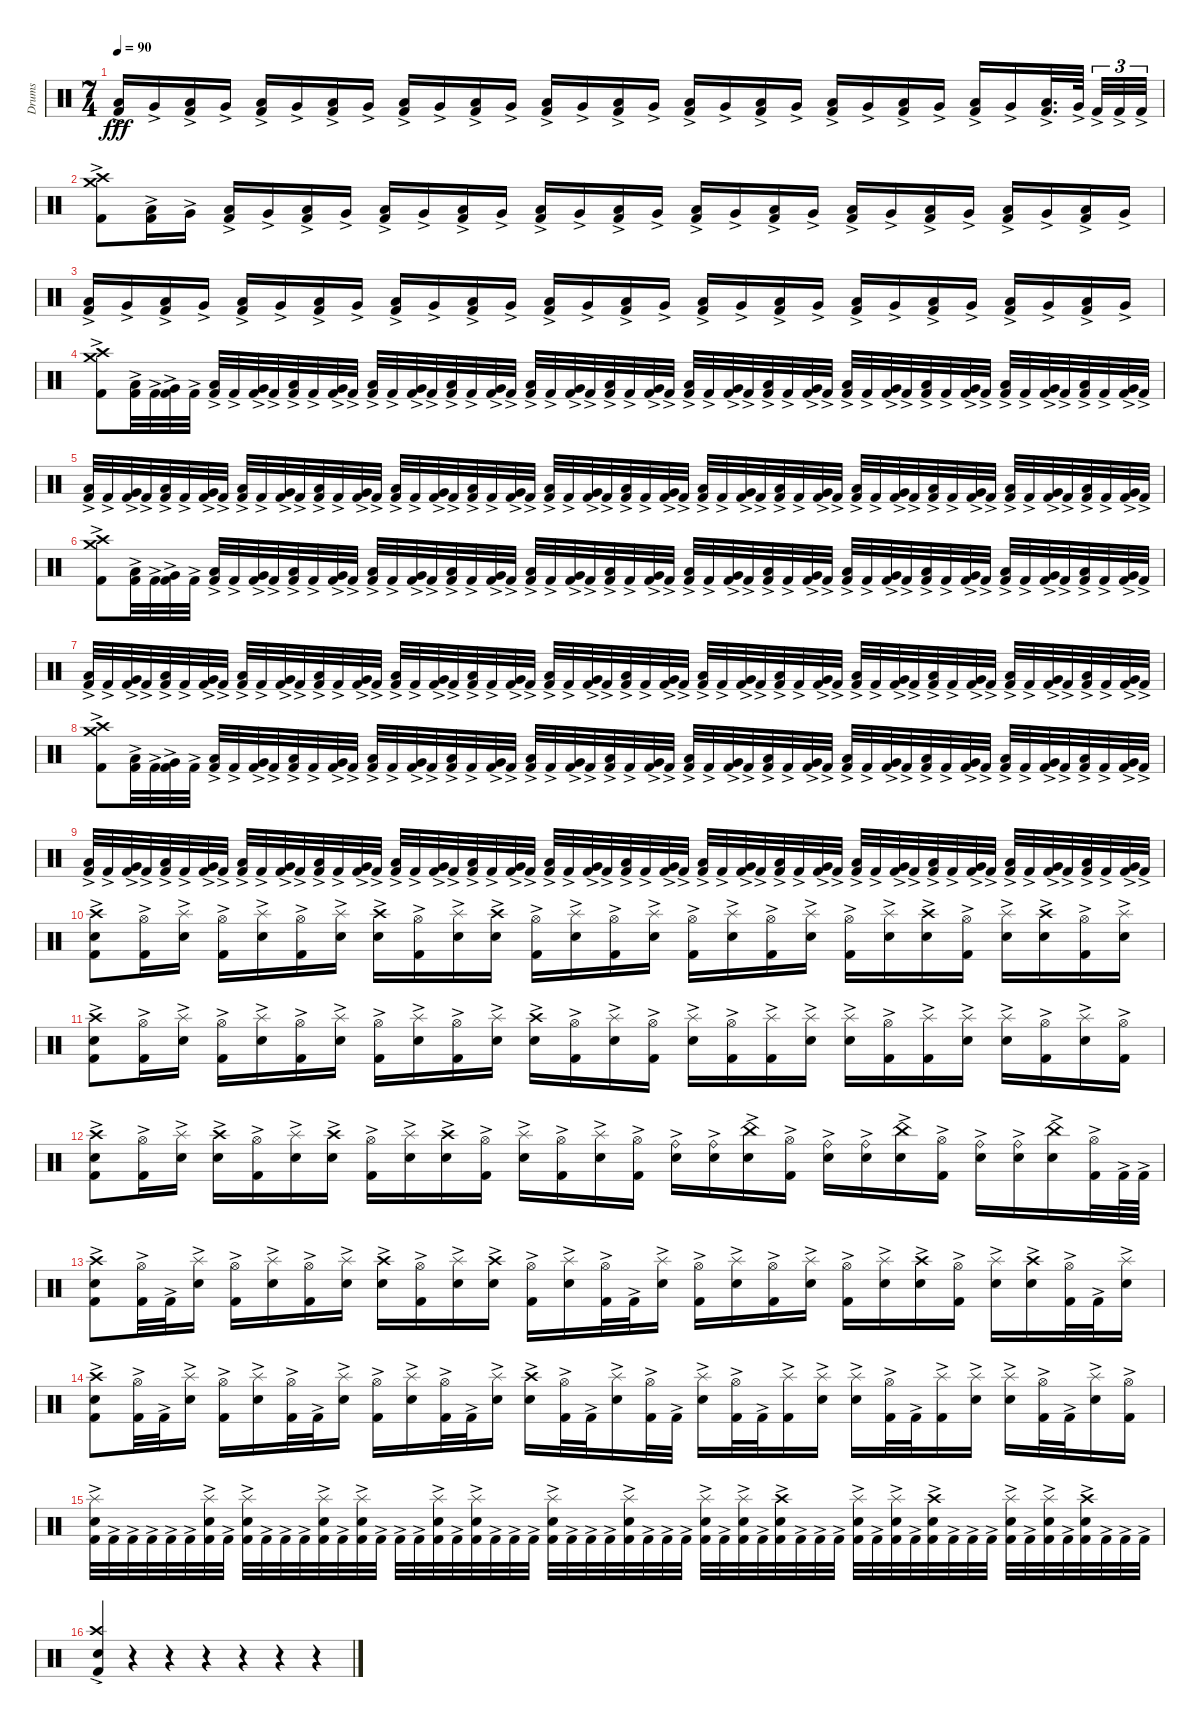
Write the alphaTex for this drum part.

\track ("Drums" "Drums") {instrument percussion}
\staff {score}
\articulation defaults
\ts (7 4)
\tempo 90
\clef neutral
\ks c
("Low Tom (hit)"{ac} "Kick (hit) 2"{ac}).16{dy fff} "Very Low Tom (hit)"{ac}.16 ("Low Tom (hit)"{ac} "Kick (hit) 2"{ac}).16 "Very Low Tom (hit)"{ac}.16 ("Low Tom (hit)"{ac} "Kick (hit) 2"{ac}).16 "Very Low Tom (hit)"{ac}.16 ("Low Tom (hit)"{ac} "Kick (hit) 2"{ac}).16 "Very Low Tom (hit)"{ac}.16 ("Low Tom (hit)"{ac} "Kick (hit) 2"{ac}).16 "Very Low Tom (hit)"{ac}.16 ("Low Tom (hit)"{ac} "Kick (hit) 2"{ac}).16 "Very Low Tom (hit)"{ac}.16 ("Low Tom (hit)"{ac} "Kick (hit) 2"{ac}).16 "Very Low Tom (hit)"{ac}.16 ("Low Tom (hit)"{ac} "Kick (hit) 2"{ac}).16 "Very Low Tom (hit)"{ac}.16 ("Low Tom (hit)"{ac} "Kick (hit) 2"{ac}).16 "Very Low Tom (hit)"{ac}.16 ("Low Tom (hit)"{ac} "Kick (hit) 2"{ac}).16 "Very Low Tom (hit)"{ac}.16 ("Low Tom (hit)"{ac} "Kick (hit) 2"{ac}).16 "Very Low Tom (hit)"{ac}.16 ("Low Tom (hit)"{ac} "Kick (hit) 2"{ac}).16 "Very Low Tom (hit)"{ac}.16 ("Low Tom (hit)"{ac} "Kick (hit) 2"{ac}).16 "Very Low Tom (hit)"{ac}.16 ("Low Tom (hit)"{ac} "Kick (hit) 2"{ac}).32{d} "Very Low Tom (hit)"{ac}.64 "Kick (hit) 2"{ac}.32{tu (3 2)} "Kick (hit) 2"{ac}.32{tu (3 2)} "Kick (hit) 2"{ac}.32{tu (3 2)} |
("Crash high (hit)"{ac} "Crash medium (hit)"{ac} "Kick (hit) 2"{ac}).8 ("Low Tom (hit)"{ac} "Kick (hit) 2"{ac}).16 "Very Low Tom (hit)"{ac}.16 ("Low Tom (hit)"{ac} "Kick (hit) 2"{ac}).16 "Very Low Tom (hit)"{ac}.16 ("Low Tom (hit)"{ac} "Kick (hit) 2"{ac}).16 "Very Low Tom (hit)"{ac}.16 ("Low Tom (hit)"{ac} "Kick (hit) 2"{ac}).16 "Very Low Tom (hit)"{ac}.16 ("Low Tom (hit)"{ac} "Kick (hit) 2"{ac}).16 "Very Low Tom (hit)"{ac}.16 ("Low Tom (hit)"{ac} "Kick (hit) 2"{ac}).16 "Very Low Tom (hit)"{ac}.16 ("Low Tom (hit)"{ac} "Kick (hit) 2"{ac}).16 "Very Low Tom (hit)"{ac}.16 ("Low Tom (hit)"{ac} "Kick (hit) 2"{ac}).16 "Very Low Tom (hit)"{ac}.16 ("Low Tom (hit)"{ac} "Kick (hit) 2"{ac}).16 "Very Low Tom (hit)"{ac}.16 ("Low Tom (hit)"{ac} "Kick (hit) 2"{ac}).16 "Very Low Tom (hit)"{ac}.16 ("Low Tom (hit)"{ac} "Kick (hit) 2"{ac}).16 "Very Low Tom (hit)"{ac}.16 ("Low Tom (hit)"{ac} "Kick (hit) 2"{ac}).16 "Very Low Tom (hit)"{ac}.16 ("Low Tom (hit)"{ac} "Kick (hit) 2"{ac}).16 "Very Low Tom (hit)"{ac}.16 |
("Low Tom (hit)"{ac} "Kick (hit) 2"{ac}).16 "Very Low Tom (hit)"{ac}.16 ("Low Tom (hit)"{ac} "Kick (hit) 2"{ac}).16 "Very Low Tom (hit)"{ac}.16 ("Low Tom (hit)"{ac} "Kick (hit) 2"{ac}).16 "Very Low Tom (hit)"{ac}.16 ("Low Tom (hit)"{ac} "Kick (hit) 2"{ac}).16 "Very Low Tom (hit)"{ac}.16 ("Low Tom (hit)"{ac} "Kick (hit) 2"{ac}).16 "Very Low Tom (hit)"{ac}.16 ("Low Tom (hit)"{ac} "Kick (hit) 2"{ac}).16 "Very Low Tom (hit)"{ac}.16 ("Low Tom (hit)"{ac} "Kick (hit) 2"{ac}).16 "Very Low Tom (hit)"{ac}.16 ("Low Tom (hit)"{ac} "Kick (hit) 2"{ac}).16 "Very Low Tom (hit)"{ac}.16 ("Low Tom (hit)"{ac} "Kick (hit) 2"{ac}).16 "Very Low Tom (hit)"{ac}.16 ("Low Tom (hit)"{ac} "Kick (hit) 2"{ac}).16 "Very Low Tom (hit)"{ac}.16 ("Low Tom (hit)"{ac} "Kick (hit) 2"{ac}).16 "Very Low Tom (hit)"{ac}.16 ("Low Tom (hit)"{ac} "Kick (hit) 2"{ac}).16 "Very Low Tom (hit)"{ac}.16 ("Low Tom (hit)"{ac} "Kick (hit) 2"{ac}).16 "Very Low Tom (hit)"{ac}.16 ("Low Tom (hit)"{ac} "Kick (hit) 2"{ac}).16 "Very Low Tom (hit)"{ac}.16 |
("Crash high (hit)"{ac} "Crash medium (hit)"{ac} "Kick (hit) 2"{ac}).8 ("Low Tom (hit)"{ac} "Kick (hit) 2"{ac}).32 "Kick (hit) 2"{ac}.32 ("Very Low Tom (hit)"{ac} "Kick (hit) 2"{ac}).32 "Kick (hit) 2"{ac}.32 ("Low Tom (hit)"{ac} "Kick (hit) 2"{ac}).32 "Kick (hit) 2"{ac}.32 ("Very Low Tom (hit)"{ac} "Kick (hit) 2"{ac}).32 "Kick (hit) 2"{ac}.32 ("Low Tom (hit)"{ac} "Kick (hit) 2"{ac}).32 "Kick (hit) 2"{ac}.32 ("Very Low Tom (hit)"{ac} "Kick (hit) 2"{ac}).32 "Kick (hit) 2"{ac}.32 ("Low Tom (hit)"{ac} "Kick (hit) 2"{ac}).32 "Kick (hit) 2"{ac}.32 ("Very Low Tom (hit)"{ac} "Kick (hit) 2"{ac}).32 "Kick (hit) 2"{ac}.32 ("Low Tom (hit)"{ac} "Kick (hit) 2"{ac}).32 "Kick (hit) 2"{ac}.32 ("Very Low Tom (hit)"{ac} "Kick (hit) 2"{ac}).32 "Kick (hit) 2"{ac}.32 ("Low Tom (hit)"{ac} "Kick (hit) 2"{ac}).32 "Kick (hit) 2"{ac}.32 ("Very Low Tom (hit)"{ac} "Kick (hit) 2"{ac}).32 "Kick (hit) 2"{ac}.32 ("Low Tom (hit)"{ac} "Kick (hit) 2"{ac}).32 "Kick (hit) 2"{ac}.32 ("Very Low Tom (hit)"{ac} "Kick (hit) 2"{ac}).32 "Kick (hit) 2"{ac}.32 ("Low Tom (hit)"{ac} "Kick (hit) 2"{ac}).32 "Kick (hit) 2"{ac}.32 ("Very Low Tom (hit)"{ac} "Kick (hit) 2"{ac}).32 "Kick (hit) 2"{ac}.32 ("Low Tom (hit)"{ac} "Kick (hit) 2"{ac}).32 "Kick (hit) 2"{ac}.32 ("Very Low Tom (hit)"{ac} "Kick (hit) 2"{ac}).32 "Kick (hit) 2"{ac}.32 ("Low Tom (hit)"{ac} "Kick (hit) 2"{ac}).32 "Kick (hit) 2"{ac}.32 ("Very Low Tom (hit)"{ac} "Kick (hit) 2"{ac}).32 "Kick (hit) 2"{ac}.32 ("Low Tom (hit)"{ac} "Kick (hit) 2"{ac}).32 "Kick (hit) 2"{ac}.32 ("Very Low Tom (hit)"{ac} "Kick (hit) 2"{ac}).32 "Kick (hit) 2"{ac}.32 ("Low Tom (hit)"{ac} "Kick (hit) 2"{ac}).32 "Kick (hit) 2"{ac}.32 ("Very Low Tom (hit)"{ac} "Kick (hit) 2"{ac}).32 "Kick (hit) 2"{ac}.32 ("Low Tom (hit)"{ac} "Kick (hit) 2"{ac}).32 "Kick (hit) 2"{ac}.32 ("Very Low Tom (hit)"{ac} "Kick (hit) 2"{ac}).32 "Kick (hit) 2"{ac}.32 |
("Low Tom (hit)"{ac} "Kick (hit) 2"{ac}).32 "Kick (hit) 2"{ac}.32 ("Very Low Tom (hit)"{ac} "Kick (hit) 2"{ac}).32 "Kick (hit) 2"{ac}.32 ("Low Tom (hit)"{ac} "Kick (hit) 2"{ac}).32 "Kick (hit) 2"{ac}.32 ("Very Low Tom (hit)"{ac} "Kick (hit) 2"{ac}).32 "Kick (hit) 2"{ac}.32 ("Low Tom (hit)"{ac} "Kick (hit) 2"{ac}).32 "Kick (hit) 2"{ac}.32 ("Very Low Tom (hit)"{ac} "Kick (hit) 2"{ac}).32 "Kick (hit) 2"{ac}.32 ("Low Tom (hit)"{ac} "Kick (hit) 2"{ac}).32 "Kick (hit) 2"{ac}.32 ("Very Low Tom (hit)"{ac} "Kick (hit) 2"{ac}).32 "Kick (hit) 2"{ac}.32 ("Low Tom (hit)"{ac} "Kick (hit) 2"{ac}).32 "Kick (hit) 2"{ac}.32 ("Very Low Tom (hit)"{ac} "Kick (hit) 2"{ac}).32 "Kick (hit) 2"{ac}.32 ("Low Tom (hit)"{ac} "Kick (hit) 2"{ac}).32 "Kick (hit) 2"{ac}.32 ("Very Low Tom (hit)"{ac} "Kick (hit) 2"{ac}).32 "Kick (hit) 2"{ac}.32 ("Low Tom (hit)"{ac} "Kick (hit) 2"{ac}).32 "Kick (hit) 2"{ac}.32 ("Very Low Tom (hit)"{ac} "Kick (hit) 2"{ac}).32 "Kick (hit) 2"{ac}.32 ("Low Tom (hit)"{ac} "Kick (hit) 2"{ac}).32 "Kick (hit) 2"{ac}.32 ("Very Low Tom (hit)"{ac} "Kick (hit) 2"{ac}).32 "Kick (hit) 2"{ac}.32 ("Low Tom (hit)"{ac} "Kick (hit) 2"{ac}).32 "Kick (hit) 2"{ac}.32 ("Very Low Tom (hit)"{ac} "Kick (hit) 2"{ac}).32 "Kick (hit) 2"{ac}.32 ("Low Tom (hit)"{ac} "Kick (hit) 2"{ac}).32 "Kick (hit) 2"{ac}.32 ("Very Low Tom (hit)"{ac} "Kick (hit) 2"{ac}).32 "Kick (hit) 2"{ac}.32 ("Low Tom (hit)"{ac} "Kick (hit) 2"{ac}).32 "Kick (hit) 2"{ac}.32 ("Very Low Tom (hit)"{ac} "Kick (hit) 2"{ac}).32 "Kick (hit) 2"{ac}.32 ("Low Tom (hit)"{ac} "Kick (hit) 2"{ac}).32 "Kick (hit) 2"{ac}.32 ("Very Low Tom (hit)"{ac} "Kick (hit) 2"{ac}).32 "Kick (hit) 2"{ac}.32 ("Low Tom (hit)"{ac} "Kick (hit) 2"{ac}).32 "Kick (hit) 2"{ac}.32 ("Very Low Tom (hit)"{ac} "Kick (hit) 2"{ac}).32 "Kick (hit) 2"{ac}.32 ("Low Tom (hit)"{ac} "Kick (hit) 2"{ac}).32 "Kick (hit) 2"{ac}.32 ("Very Low Tom (hit)"{ac} "Kick (hit) 2"{ac}).32 "Kick (hit) 2"{ac}.32 |
("Crash high (hit)"{ac} "Crash medium (hit)"{ac} "Kick (hit) 2"{ac}).8 ("Low Tom (hit)"{ac} "Kick (hit) 2"{ac}).32 "Kick (hit) 2"{ac}.32 ("Very Low Tom (hit)"{ac} "Kick (hit) 2"{ac}).32 "Kick (hit) 2"{ac}.32 ("Low Tom (hit)"{ac} "Kick (hit) 2"{ac}).32 "Kick (hit) 2"{ac}.32 ("Very Low Tom (hit)"{ac} "Kick (hit) 2"{ac}).32 "Kick (hit) 2"{ac}.32 ("Low Tom (hit)"{ac} "Kick (hit) 2"{ac}).32 "Kick (hit) 2"{ac}.32 ("Very Low Tom (hit)"{ac} "Kick (hit) 2"{ac}).32 "Kick (hit) 2"{ac}.32 ("Low Tom (hit)"{ac} "Kick (hit) 2"{ac}).32 "Kick (hit) 2"{ac}.32 ("Very Low Tom (hit)"{ac} "Kick (hit) 2"{ac}).32 "Kick (hit) 2"{ac}.32 ("Low Tom (hit)"{ac} "Kick (hit) 2"{ac}).32 "Kick (hit) 2"{ac}.32 ("Very Low Tom (hit)"{ac} "Kick (hit) 2"{ac}).32 "Kick (hit) 2"{ac}.32 ("Low Tom (hit)"{ac} "Kick (hit) 2"{ac}).32 "Kick (hit) 2"{ac}.32 ("Very Low Tom (hit)"{ac} "Kick (hit) 2"{ac}).32 "Kick (hit) 2"{ac}.32 ("Low Tom (hit)"{ac} "Kick (hit) 2"{ac}).32 "Kick (hit) 2"{ac}.32 ("Very Low Tom (hit)"{ac} "Kick (hit) 2"{ac}).32 "Kick (hit) 2"{ac}.32 ("Low Tom (hit)"{ac} "Kick (hit) 2"{ac}).32 "Kick (hit) 2"{ac}.32 ("Very Low Tom (hit)"{ac} "Kick (hit) 2"{ac}).32 "Kick (hit) 2"{ac}.32 ("Low Tom (hit)"{ac} "Kick (hit) 2"{ac}).32 "Kick (hit) 2"{ac}.32 ("Very Low Tom (hit)"{ac} "Kick (hit) 2"{ac}).32 "Kick (hit) 2"{ac}.32 ("Low Tom (hit)"{ac} "Kick (hit) 2"{ac}).32 "Kick (hit) 2"{ac}.32 ("Very Low Tom (hit)"{ac} "Kick (hit) 2"{ac}).32 "Kick (hit) 2"{ac}.32 ("Low Tom (hit)"{ac} "Kick (hit) 2"{ac}).32 "Kick (hit) 2"{ac}.32 ("Very Low Tom (hit)"{ac} "Kick (hit) 2"{ac}).32 "Kick (hit) 2"{ac}.32 ("Low Tom (hit)"{ac} "Kick (hit) 2"{ac}).32 "Kick (hit) 2"{ac}.32 ("Very Low Tom (hit)"{ac} "Kick (hit) 2"{ac}).32 "Kick (hit) 2"{ac}.32 ("Low Tom (hit)"{ac} "Kick (hit) 2"{ac}).32 "Kick (hit) 2"{ac}.32 ("Very Low Tom (hit)"{ac} "Kick (hit) 2"{ac}).32 "Kick (hit) 2"{ac}.32 |
("Low Tom (hit)"{ac} "Kick (hit) 2"{ac}).32 "Kick (hit) 2"{ac}.32 ("Very Low Tom (hit)"{ac} "Kick (hit) 2"{ac}).32 "Kick (hit) 2"{ac}.32 ("Low Tom (hit)"{ac} "Kick (hit) 2"{ac}).32 "Kick (hit) 2"{ac}.32 ("Very Low Tom (hit)"{ac} "Kick (hit) 2"{ac}).32 "Kick (hit) 2"{ac}.32 ("Low Tom (hit)"{ac} "Kick (hit) 2"{ac}).32 "Kick (hit) 2"{ac}.32 ("Very Low Tom (hit)"{ac} "Kick (hit) 2"{ac}).32 "Kick (hit) 2"{ac}.32 ("Low Tom (hit)"{ac} "Kick (hit) 2"{ac}).32 "Kick (hit) 2"{ac}.32 ("Very Low Tom (hit)"{ac} "Kick (hit) 2"{ac}).32 "Kick (hit) 2"{ac}.32 ("Low Tom (hit)"{ac} "Kick (hit) 2"{ac}).32 "Kick (hit) 2"{ac}.32 ("Very Low Tom (hit)"{ac} "Kick (hit) 2"{ac}).32 "Kick (hit) 2"{ac}.32 ("Low Tom (hit)"{ac} "Kick (hit) 2"{ac}).32 "Kick (hit) 2"{ac}.32 ("Very Low Tom (hit)"{ac} "Kick (hit) 2"{ac}).32 "Kick (hit) 2"{ac}.32 ("Low Tom (hit)"{ac} "Kick (hit) 2"{ac}).32 "Kick (hit) 2"{ac}.32 ("Very Low Tom (hit)"{ac} "Kick (hit) 2"{ac}).32 "Kick (hit) 2"{ac}.32 ("Low Tom (hit)"{ac} "Kick (hit) 2"{ac}).32 "Kick (hit) 2"{ac}.32 ("Very Low Tom (hit)"{ac} "Kick (hit) 2"{ac}).32 "Kick (hit) 2"{ac}.32 ("Low Tom (hit)"{ac} "Kick (hit) 2"{ac}).32 "Kick (hit) 2"{ac}.32 ("Very Low Tom (hit)"{ac} "Kick (hit) 2"{ac}).32 "Kick (hit) 2"{ac}.32 ("Low Tom (hit)"{ac} "Kick (hit) 2"{ac}).32 "Kick (hit) 2"{ac}.32 ("Very Low Tom (hit)"{ac} "Kick (hit) 2"{ac}).32 "Kick (hit) 2"{ac}.32 ("Low Tom (hit)"{ac} "Kick (hit) 2"{ac}).32 "Kick (hit) 2"{ac}.32 ("Very Low Tom (hit)"{ac} "Kick (hit) 2"{ac}).32 "Kick (hit) 2"{ac}.32 ("Low Tom (hit)"{ac} "Kick (hit) 2"{ac}).32 "Kick (hit) 2"{ac}.32 ("Very Low Tom (hit)"{ac} "Kick (hit) 2"{ac}).32 "Kick (hit) 2"{ac}.32 ("Low Tom (hit)"{ac} "Kick (hit) 2"{ac}).32 "Kick (hit) 2"{ac}.32 ("Very Low Tom (hit)"{ac} "Kick (hit) 2"{ac}).32 "Kick (hit) 2"{ac}.32 ("Low Tom (hit)"{ac} "Kick (hit) 2"{ac}).32 "Kick (hit) 2"{ac}.32 ("Very Low Tom (hit)"{ac} "Kick (hit) 2"{ac}).32 "Kick (hit) 2"{ac}.32 |
("Crash high (hit)"{ac} "Crash medium (hit)"{ac} "Kick (hit) 2"{ac}).8 ("Low Tom (hit)"{ac} "Kick (hit) 2"{ac}).32 "Kick (hit) 2"{ac}.32 ("Very Low Tom (hit)"{ac} "Kick (hit) 2"{ac}).32 "Kick (hit) 2"{ac}.32 ("Low Tom (hit)"{ac} "Kick (hit) 2"{ac}).32 "Kick (hit) 2"{ac}.32 ("Very Low Tom (hit)"{ac} "Kick (hit) 2"{ac}).32 "Kick (hit) 2"{ac}.32 ("Low Tom (hit)"{ac} "Kick (hit) 2"{ac}).32 "Kick (hit) 2"{ac}.32 ("Very Low Tom (hit)"{ac} "Kick (hit) 2"{ac}).32 "Kick (hit) 2"{ac}.32 ("Low Tom (hit)"{ac} "Kick (hit) 2"{ac}).32 "Kick (hit) 2"{ac}.32 ("Very Low Tom (hit)"{ac} "Kick (hit) 2"{ac}).32 "Kick (hit) 2"{ac}.32 ("Low Tom (hit)"{ac} "Kick (hit) 2"{ac}).32 "Kick (hit) 2"{ac}.32 ("Very Low Tom (hit)"{ac} "Kick (hit) 2"{ac}).32 "Kick (hit) 2"{ac}.32 ("Low Tom (hit)"{ac} "Kick (hit) 2"{ac}).32 "Kick (hit) 2"{ac}.32 ("Very Low Tom (hit)"{ac} "Kick (hit) 2"{ac}).32 "Kick (hit) 2"{ac}.32 ("Low Tom (hit)"{ac} "Kick (hit) 2"{ac}).32 "Kick (hit) 2"{ac}.32 ("Very Low Tom (hit)"{ac} "Kick (hit) 2"{ac}).32 "Kick (hit) 2"{ac}.32 ("Low Tom (hit)"{ac} "Kick (hit) 2"{ac}).32 "Kick (hit) 2"{ac}.32 ("Very Low Tom (hit)"{ac} "Kick (hit) 2"{ac}).32 "Kick (hit) 2"{ac}.32 ("Low Tom (hit)"{ac} "Kick (hit) 2"{ac}).32 "Kick (hit) 2"{ac}.32 ("Very Low Tom (hit)"{ac} "Kick (hit) 2"{ac}).32 "Kick (hit) 2"{ac}.32 ("Low Tom (hit)"{ac} "Kick (hit) 2"{ac}).32 "Kick (hit) 2"{ac}.32 ("Very Low Tom (hit)"{ac} "Kick (hit) 2"{ac}).32 "Kick (hit) 2"{ac}.32 ("Low Tom (hit)"{ac} "Kick (hit) 2"{ac}).32 "Kick (hit) 2"{ac}.32 ("Very Low Tom (hit)"{ac} "Kick (hit) 2"{ac}).32 "Kick (hit) 2"{ac}.32 ("Low Tom (hit)"{ac} "Kick (hit) 2"{ac}).32 "Kick (hit) 2"{ac}.32 ("Very Low Tom (hit)"{ac} "Kick (hit) 2"{ac}).32 "Kick (hit) 2"{ac}.32 ("Low Tom (hit)"{ac} "Kick (hit) 2"{ac}).32 "Kick (hit) 2"{ac}.32 ("Very Low Tom (hit)"{ac} "Kick (hit) 2"{ac}).32 "Kick (hit) 2"{ac}.32 |
("Low Tom (hit)"{ac} "Kick (hit) 2"{ac}).32 "Kick (hit) 2"{ac}.32 ("Very Low Tom (hit)"{ac} "Kick (hit) 2"{ac}).32 "Kick (hit) 2"{ac}.32 ("Low Tom (hit)"{ac} "Kick (hit) 2"{ac}).32 "Kick (hit) 2"{ac}.32 ("Very Low Tom (hit)"{ac} "Kick (hit) 2"{ac}).32 "Kick (hit) 2"{ac}.32 ("Low Tom (hit)"{ac} "Kick (hit) 2"{ac}).32 "Kick (hit) 2"{ac}.32 ("Very Low Tom (hit)"{ac} "Kick (hit) 2"{ac}).32 "Kick (hit) 2"{ac}.32 ("Low Tom (hit)"{ac} "Kick (hit) 2"{ac}).32 "Kick (hit) 2"{ac}.32 ("Very Low Tom (hit)"{ac} "Kick (hit) 2"{ac}).32 "Kick (hit) 2"{ac}.32 ("Low Tom (hit)"{ac} "Kick (hit) 2"{ac}).32 "Kick (hit) 2"{ac}.32 ("Very Low Tom (hit)"{ac} "Kick (hit) 2"{ac}).32 "Kick (hit) 2"{ac}.32 ("Low Tom (hit)"{ac} "Kick (hit) 2"{ac}).32 "Kick (hit) 2"{ac}.32 ("Very Low Tom (hit)"{ac} "Kick (hit) 2"{ac}).32 "Kick (hit) 2"{ac}.32 ("Low Tom (hit)"{ac} "Kick (hit) 2"{ac}).32 "Kick (hit) 2"{ac}.32 ("Very Low Tom (hit)"{ac} "Kick (hit) 2"{ac}).32 "Kick (hit) 2"{ac}.32 ("Low Tom (hit)"{ac} "Kick (hit) 2"{ac}).32 "Kick (hit) 2"{ac}.32 ("Very Low Tom (hit)"{ac} "Kick (hit) 2"{ac}).32 "Kick (hit) 2"{ac}.32 ("Low Tom (hit)"{ac} "Kick (hit) 2"{ac}).32 "Kick (hit) 2"{ac}.32 ("Very Low Tom (hit)"{ac} "Kick (hit) 2"{ac}).32 "Kick (hit) 2"{ac}.32 ("Low Tom (hit)"{ac} "Kick (hit) 2"{ac}).32 "Kick (hit) 2"{ac}.32 ("Very Low Tom (hit)"{ac} "Kick (hit) 2"{ac}).32 "Kick (hit) 2"{ac}.32 ("Low Tom (hit)"{ac} "Kick (hit) 2"{ac}).32 "Kick (hit) 2"{ac}.32 ("Very Low Tom (hit)"{ac} "Kick (hit) 2"{ac}).32 "Kick (hit) 2"{ac}.32 ("Low Tom (hit)"{ac} "Kick (hit) 2"{ac}).32 "Kick (hit) 2"{ac}.32 ("Very Low Tom (hit)"{ac} "Kick (hit) 2"{ac}).32 "Kick (hit) 2"{ac}.32 ("Low Tom (hit)"{ac} "Kick (hit) 2"{ac}).32 "Kick (hit) 2"{ac}.32 ("Very Low Tom (hit)"{ac} "Kick (hit) 2"{ac}).32 "Kick (hit) 2"{ac}.32 ("Low Tom (hit)"{ac} "Kick (hit) 2"{ac}).32 "Kick (hit) 2"{ac}.32 ("Very Low Tom (hit)"{ac} "Kick (hit) 2"{ac}).32 "Kick (hit) 2"{ac}.32 |
("Crash high (hit)"{ac} "Snare (hit) 2"{ac} "Kick (hit) 2"{ac}).8 ("Hi-Hat (open)"{ac} "Kick (hit) 2"{ac}).16 ("Splash (hit)"{ac} "Snare (hit) 2"{ac}).16 ("Hi-Hat (open)"{ac} "Kick (hit) 2"{ac}).16 ("Splash (hit)"{ac} "Snare (hit) 2"{ac}).16 ("Hi-Hat (open)"{ac} "Kick (hit) 2"{ac}).16 ("Splash (hit)"{ac} "Snare (hit) 2"{ac}).16 ("Crash high (hit)"{ac} "Snare (hit) 2"{ac}).16 ("Hi-Hat (open)"{ac} "Kick (hit) 2"{ac}).16 ("Splash (hit)"{ac} "Snare (hit) 2"{ac}).16 ("Crash high (hit)"{ac} "Snare (hit) 2"{ac}).16 ("Hi-Hat (open)"{ac} "Kick (hit) 2"{ac}).16 ("Splash (hit)"{ac} "Snare (hit) 2"{ac}).16 ("Hi-Hat (open)"{ac} "Kick (hit) 2"{ac}).16 ("Splash (hit)"{ac} "Snare (hit) 2"{ac}).16 ("Hi-Hat (open)"{ac} "Kick (hit) 2"{ac}).16 ("Splash (hit)"{ac} "Snare (hit) 2"{ac}).16 ("Hi-Hat (open)"{ac} "Kick (hit) 2"{ac}).16 ("Splash (hit)"{ac} "Snare (hit) 2"{ac}).16 ("Hi-Hat (open)"{ac} "Kick (hit) 2"{ac}).16 ("Splash (hit)"{ac} "Snare (hit) 2"{ac}).16 ("Crash high (hit)"{ac} "Snare (hit) 2"{ac}).16 ("Hi-Hat (open)"{ac} "Kick (hit) 2"{ac}).16 ("Splash (hit)"{ac} "Snare (hit) 2"{ac}).16 ("Crash high (hit)"{ac} "Snare (hit) 2"{ac}).16 ("Hi-Hat (open)"{ac} "Kick (hit) 2"{ac}).16 ("Splash (hit)"{ac} "Snare (hit) 2"{ac}).16 |
("Crash high (hit)"{ac} "Snare (hit) 2"{ac} "Kick (hit) 2"{ac}).8 ("Hi-Hat (open)"{ac} "Kick (hit) 2"{ac}).16 ("Splash (hit)"{ac} "Snare (hit) 2"{ac}).16 ("Hi-Hat (open)"{ac} "Kick (hit) 2"{ac}).16 ("Splash (hit)"{ac} "Snare (hit) 2"{ac}).16 ("Hi-Hat (open)"{ac} "Kick (hit) 2"{ac}).16 ("Splash (hit)"{ac} "Snare (hit) 2"{ac}).16 ("Hi-Hat (open)"{ac} "Kick (hit) 2"{ac}).16 ("Splash (hit)"{ac} "Snare (hit) 2"{ac}).16 ("Hi-Hat (open)"{ac} "Kick (hit) 2"{ac}).16 ("Splash (hit)"{ac} "Snare (hit) 2"{ac}).16 ("Crash high (hit)"{ac} "Snare (hit) 2"{ac}).16 ("Hi-Hat (open)"{ac} "Kick (hit) 2"{ac}).16 ("Splash (hit)"{ac} "Snare (hit) 2"{ac}).16 ("Hi-Hat (open)"{ac} "Kick (hit) 2"{ac}).16 ("Splash (hit)"{ac} "Snare (hit) 2"{ac}).16 ("Hi-Hat (open)"{ac} "Kick (hit) 2"{ac}).16 ("Splash (hit)"{ac} "Kick (hit) 2"{ac}).16 ("Splash (hit)"{ac} "Snare (hit) 2"{ac}).16 ("Splash (hit)"{ac} "Snare (hit) 2"{ac}).16 ("Hi-Hat (open)"{ac} "Kick (hit) 2"{ac}).16 ("Splash (hit)"{ac} "Kick (hit) 2"{ac}).16 ("Splash (hit)"{ac} "Snare (hit) 2"{ac}).16 ("Splash (hit)"{ac} "Snare (hit) 2"{ac}).16 ("Hi-Hat (open)"{ac} "Kick (hit) 2"{ac}).16 ("Splash (hit)"{ac} "Snare (hit) 2"{ac}).16 ("Hi-Hat (open)"{ac} "Kick (hit) 2"{ac}).16 |
("Crash high (hit)"{ac} "Snare (hit) 2"{ac} "Kick (hit) 2"{ac}).8 ("Hi-Hat (open)"{ac} "Kick (hit) 2"{ac}).16 ("Splash (hit)"{ac} "Snare (hit) 2"{ac}).16 ("Crash high (hit)"{ac} "Snare (hit) 2"{ac}).16 ("Hi-Hat (open)"{ac} "Kick (hit) 2"{ac}).16 ("Splash (hit)"{ac} "Snare (hit) 2"{ac}).16 ("Crash high (hit)"{ac} "Snare (hit) 2"{ac}).16 ("Hi-Hat (open)"{ac} "Kick (hit) 2"{ac}).16 ("Splash (hit)"{ac} "Snare (hit) 2"{ac}).16 ("Crash high (hit)"{ac} "Snare (hit) 2"{ac}).16 ("Hi-Hat (open)"{ac} "Kick (hit) 2"{ac}).16 ("Splash (hit)"{ac} "Snare (hit) 2"{ac}).16 ("Hi-Hat (open)"{ac} "Kick (hit) 2"{ac}).16 ("Splash (hit)"{ac} "Snare (hit) 2"{ac}).16 ("Hi-Hat (open)"{ac} "Kick (hit) 2"{ac}).16 ("Ride (bell)"{ac} "Snare (hit) 2"{ac}).16 ("Ride (bell)"{ac} "Snare (hit) 2"{ac}).16 ("China (hit)"{ac} "Snare (hit) 2"{ac}).16 ("Hi-Hat (open)"{ac} "Kick (hit) 2"{ac}).16 ("Ride (bell)"{ac} "Snare (hit) 2"{ac}).16 ("Ride (bell)"{ac} "Snare (hit) 2"{ac}).16 ("China (hit)"{ac} "Snare (hit) 2"{ac}).16 ("Hi-Hat (open)"{ac} "Kick (hit) 2"{ac}).16 ("Ride (bell)"{ac} "Snare (hit) 2"{ac}).16 ("Ride (bell)"{ac} "Snare (hit) 2"{ac}).16 ("China (hit)"{ac} "Snare (hit) 2"{ac}).16 ("Hi-Hat (open)"{ac} "Kick (hit) 2"{ac}).32 "Kick (hit) 2"{ac}.64 "Kick (hit) 2"{ac}.64 |
("Crash high (hit)"{ac} "Snare (hit) 2"{ac} "Kick (hit) 2"{ac}).8 ("Hi-Hat (open)"{ac} "Kick (hit) 2"{ac}).32 "Kick (hit) 2"{ac}.32 ("Splash (hit)"{ac} "Snare (hit) 2"{ac}).16 ("Hi-Hat (open)"{ac} "Kick (hit) 2"{ac}).16 ("Splash (hit)"{ac} "Snare (hit) 2"{ac}).16 ("Hi-Hat (open)"{ac} "Kick (hit) 2"{ac}).16 ("Splash (hit)"{ac} "Snare (hit) 2"{ac}).16 ("Crash high (hit)"{ac} "Snare (hit) 2"{ac}).16 ("Hi-Hat (open)"{ac} "Kick (hit) 2"{ac}).16 ("Splash (hit)"{ac} "Snare (hit) 2"{ac}).16 ("Crash high (hit)"{ac} "Snare (hit) 2"{ac}).16 ("Hi-Hat (open)"{ac} "Kick (hit) 2"{ac}).16 ("Splash (hit)"{ac} "Snare (hit) 2"{ac}).16 ("Hi-Hat (open)"{ac} "Kick (hit) 2"{ac}).32 "Kick (hit) 2"{ac}.32 ("Splash (hit)"{ac} "Snare (hit) 2"{ac}).16 ("Hi-Hat (open)"{ac} "Kick (hit) 2"{ac}).16 ("Splash (hit)"{ac} "Snare (hit) 2"{ac}).16 ("Hi-Hat (open)"{ac} "Kick (hit) 2"{ac}).16 ("Splash (hit)"{ac} "Snare (hit) 2"{ac}).16 ("Hi-Hat (open)"{ac} "Kick (hit) 2"{ac}).16 ("Splash (hit)"{ac} "Snare (hit) 2"{ac}).16 ("Crash high (hit)"{ac} "Snare (hit) 2"{ac}).16 ("Hi-Hat (open)"{ac} "Kick (hit) 2"{ac}).16 ("Splash (hit)"{ac} "Snare (hit) 2"{ac}).16 ("Crash high (hit)"{ac} "Snare (hit) 2"{ac}).16 ("Hi-Hat (open)"{ac} "Kick (hit) 2"{ac}).32 "Kick (hit) 2"{ac}.32 ("Splash (hit)"{ac} "Snare (hit) 2"{ac}).16 |
("Crash high (hit)"{ac} "Snare (hit) 2"{ac} "Kick (hit) 2"{ac}).8 ("Hi-Hat (open)"{ac} "Kick (hit) 2"{ac}).32 "Kick (hit) 2"{ac}.32 ("Splash (hit)"{ac} "Snare (hit) 2"{ac}).16 ("Hi-Hat (open)"{ac} "Kick (hit) 2"{ac}).16 ("Splash (hit)"{ac} "Snare (hit) 2"{ac}).16 ("Hi-Hat (open)"{ac} "Kick (hit) 2"{ac}).32 "Kick (hit) 2"{ac}.32 ("Splash (hit)"{ac} "Snare (hit) 2"{ac}).16 ("Hi-Hat (open)"{ac} "Kick (hit) 2"{ac}).16 ("Splash (hit)"{ac} "Snare (hit) 2"{ac}).16 ("Hi-Hat (open)"{ac} "Kick (hit) 2"{ac}).32 "Kick (hit) 2"{ac}.32 ("Splash (hit)"{ac} "Snare (hit) 2"{ac}).16 ("Crash high (hit)"{ac} "Snare (hit) 2"{ac}).16 ("Hi-Hat (open)"{ac} "Kick (hit) 2"{ac}).32 "Kick (hit) 2"{ac}.32 ("Splash (hit)"{ac} "Snare (hit) 2"{ac}).16 ("Hi-Hat (open)"{ac} "Kick (hit) 2"{ac}).32 "Kick (hit) 2"{ac}.32 ("Splash (hit)"{ac} "Snare (hit) 2"{ac}).16 ("Hi-Hat (open)"{ac} "Kick (hit) 2"{ac}).32 "Kick (hit) 2"{ac}.32 ("Splash (hit)"{ac} "Kick (hit) 2"{ac}).16 ("Splash (hit)"{ac} "Snare (hit) 2"{ac}).16 ("Splash (hit)"{ac} "Snare (hit) 2"{ac}).16 ("Hi-Hat (open)"{ac} "Kick (hit) 2"{ac}).32 "Kick (hit) 2"{ac}.32 ("Splash (hit)"{ac} "Kick (hit) 2"{ac}).16 ("Splash (hit)"{ac} "Snare (hit) 2"{ac}).16 ("Splash (hit)"{ac} "Snare (hit) 2"{ac}).16 ("Hi-Hat (open)"{ac} "Kick (hit) 2"{ac}).32 "Kick (hit) 2"{ac}.32 ("Splash (hit)"{ac} "Snare (hit) 2"{ac}).16 ("Hi-Hat (open)"{ac} "Kick (hit) 2"{ac}).16 |
("Splash (hit)"{ac} "Snare (hit) 2"{ac} "Kick (hit) 2"{ac}).32 "Kick (hit) 2"{ac}.32 "Kick (hit) 2"{ac}.32 "Kick (hit) 2"{ac}.32 "Kick (hit) 2"{ac}.32 "Kick (hit) 2"{ac}.32 ("Splash (hit)"{ac} "Snare (hit) 2"{ac} "Kick (hit) 2"{ac}).32 "Kick (hit) 2"{ac}.32 ("Splash (hit)"{ac} "Snare (hit) 2"{ac} "Kick (hit) 2"{ac}).32 "Kick (hit) 2"{ac}.32 "Kick (hit) 2"{ac}.32 "Kick (hit) 2"{ac}.32 ("Splash (hit)"{ac} "Snare (hit) 2"{ac} "Kick (hit) 2"{ac}).32 "Kick (hit) 2"{ac}.32 ("Splash (hit)"{ac} "Snare (hit) 2"{ac} "Kick (hit) 2"{ac}).32 "Kick (hit) 2"{ac}.32 "Kick (hit) 2"{ac}.32 "Kick (hit) 2"{ac}.32 ("Splash (hit)"{ac} "Snare (hit) 2"{ac} "Kick (hit) 2"{ac}).32 "Kick (hit) 2"{ac}.32 ("Splash (hit)"{ac} "Snare (hit) 2"{ac} "Kick (hit) 2"{ac}).32 "Kick (hit) 2"{ac}.32 "Kick (hit) 2"{ac}.32 "Kick (hit) 2"{ac}.32 ("Splash (hit)"{ac} "Snare (hit) 2"{ac} "Kick (hit) 2"{ac}).32 "Kick (hit) 2"{ac}.32 "Kick (hit) 2"{ac}.32 "Kick (hit) 2"{ac}.32 ("Splash (hit)"{ac} "Snare (hit) 2"{ac} "Kick (hit) 2"{ac}).32 "Kick (hit) 2"{ac}.32 "Kick (hit) 2"{ac}.32 "Kick (hit) 2"{ac}.32 ("Splash (hit)"{ac} "Snare (hit) 2"{ac} "Kick (hit) 2"{ac}).32 "Kick (hit) 2"{ac}.32 ("Splash (hit)"{ac} "Snare (hit) 2"{ac} "Kick (hit) 2"{ac}).32 "Kick (hit) 2"{ac}.32 ("Crash high (hit)"{ac} "Snare (hit) 2"{ac} "Kick (hit) 2"{ac}).32 "Kick (hit) 2"{ac}.32 "Kick (hit) 2"{ac}.32 "Kick (hit) 2"{ac}.32 ("Splash (hit)"{ac} "Snare (hit) 2"{ac} "Kick (hit) 2"{ac}).32 "Kick (hit) 2"{ac}.32 ("Splash (hit)"{ac} "Snare (hit) 2"{ac} "Kick (hit) 2"{ac}).32 "Kick (hit) 2"{ac}.32 ("Crash high (hit)"{ac} "Snare (hit) 2"{ac} "Kick (hit) 2"{ac}).32 "Kick (hit) 2"{ac}.32 "Kick (hit) 2"{ac}.32 "Kick (hit) 2"{ac}.32 ("Splash (hit)"{ac} "Snare (hit) 2"{ac} "Kick (hit) 2"{ac}).32 "Kick (hit) 2"{ac}.32 ("Splash (hit)"{ac} "Snare (hit) 2"{ac} "Kick (hit) 2"{ac}).32 "Kick (hit) 2"{ac}.32 ("Crash high (hit)"{ac} "Snare (hit) 2"{ac} "Kick (hit) 2"{ac}).32 "Kick (hit) 2"{ac}.32 "Kick (hit) 2"{ac}.32 "Kick (hit) 2"{ac}.32 |
("Crash high (hit)"{ac} "Snare (hit) 2"{ac} "Kick (hit) 2"{ac}).4 r.4 r.4 r.4 r.4 r.4 r.4
